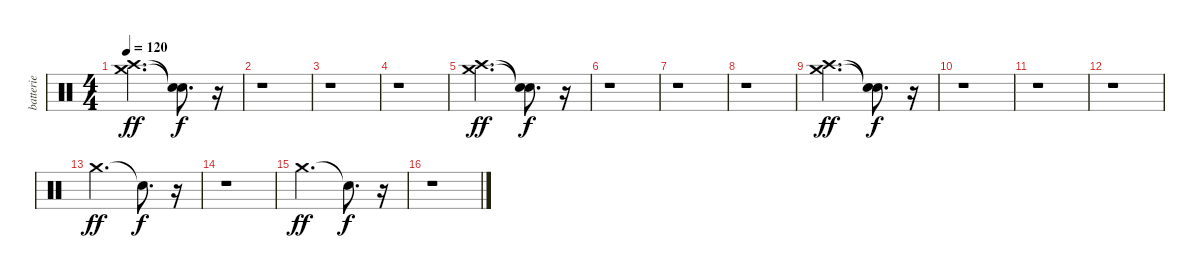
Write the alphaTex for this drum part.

\track ("batterie" "batterie") {instrument percussion}
\staff {score}
\articulation defaults
\ts (4 4)
\tempo 120
\clef neutral
\ks c
("Crash high (hit)" "Crash medium (hit)").2{d dy ff} ("Snare (hit)"{t} "Snare (hit)"{t}).8{d dy f} r.16 |
r.1 |
r.1 |
r.1 |
("Crash high (hit)" "Crash medium (hit)").2{d dy ff} ("Snare (hit)"{t} "Snare (hit)"{t}).8{d dy f} r.16 |
r.1 |
r.1 |
r.1 |
("Crash high (hit)" "Crash medium (hit)").2{d dy ff} ("Snare (hit)"{t} "Snare (hit)"{t}).8{d dy f} r.16 |
r.1 |
r.1 |
r.1 |
"Crash medium (hit)".2{d dy ff} "Snare (hit)"{t}.8{d dy f} r.16 |
r.1 |
"Crash medium (hit)".2{d dy ff} "Snare (hit)"{t}.8{d dy f} r.16 |
r.1
